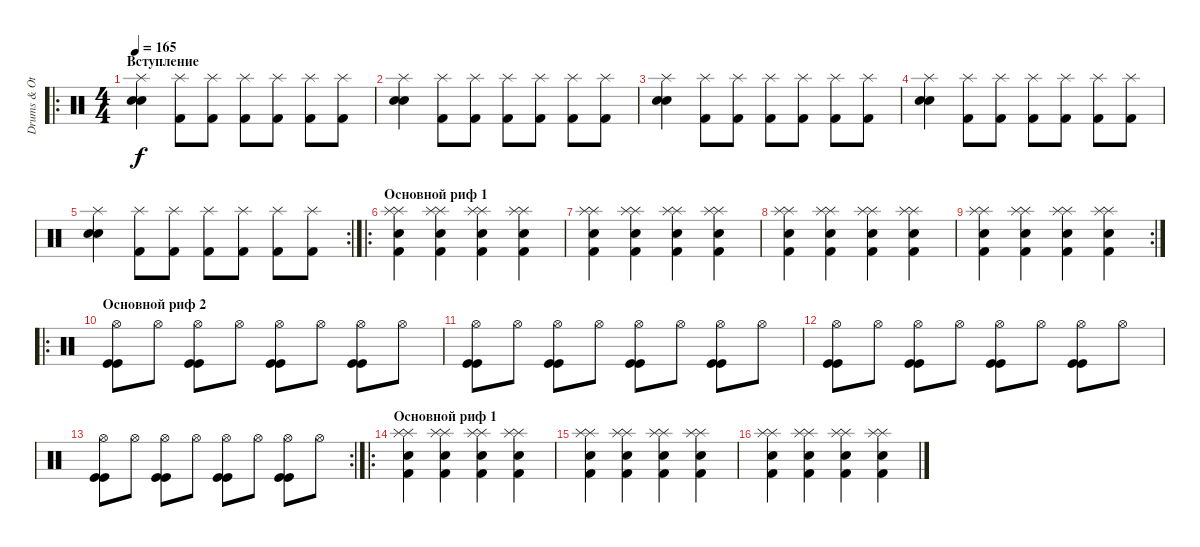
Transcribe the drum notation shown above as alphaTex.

\track ("Drums & Other percussion" "Drums & Ot") {instrument percussion}
\staff {score}
\articulation defaults
\ro
\ts (4 4)
\section ("" "Вступление")
\tempo 165
\clef neutral
\ks c
("Splash (hit)" "Electric Snare (hit)" "Electric Snare (hit)").4{dy f} ("Splash (hit)" "Kick (hit) 2").8 ("Splash (hit)" "Kick (hit) 2").8 ("Splash (hit)" "Kick (hit) 2").8 ("Splash (hit)" "Kick (hit) 2").8 ("Splash (hit)" "Kick (hit) 2").8 ("Splash (hit)" "Kick (hit) 2").8 |
("Splash (hit)" "Electric Snare (hit)" "Electric Snare (hit)").4 ("Splash (hit)" "Kick (hit) 2").8 ("Splash (hit)" "Kick (hit) 2").8 ("Splash (hit)" "Kick (hit) 2").8 ("Splash (hit)" "Kick (hit) 2").8 ("Splash (hit)" "Kick (hit) 2").8 ("Splash (hit)" "Kick (hit) 2").8 |
("Splash (hit)" "Electric Snare (hit)" "Electric Snare (hit)").4 ("Splash (hit)" "Kick (hit) 2").8 ("Splash (hit)" "Kick (hit) 2").8 ("Splash (hit)" "Kick (hit) 2").8 ("Splash (hit)" "Kick (hit) 2").8 ("Splash (hit)" "Kick (hit) 2").8 ("Splash (hit)" "Kick (hit) 2").8 |
("Splash (hit)" "Electric Snare (hit)" "Electric Snare (hit)").4 ("Splash (hit)" "Kick (hit) 2").8 ("Splash (hit)" "Kick (hit) 2").8 ("Splash (hit)" "Kick (hit) 2").8 ("Splash (hit)" "Kick (hit) 2").8 ("Splash (hit)" "Kick (hit) 2").8 ("Splash (hit)" "Kick (hit) 2").8 |
\rc 2
("Splash (hit)" "Electric Snare (hit)" "Electric Snare (hit)").4 ("Splash (hit)" "Kick (hit) 2").8 ("Splash (hit)" "Kick (hit) 2").8 ("Splash (hit)" "Kick (hit) 2").8 ("Splash (hit)" "Kick (hit) 2").8 ("Splash (hit)" "Kick (hit) 2").8 ("Splash (hit)" "Kick (hit) 2").8 |
\ro
\section ("" "Основной риф 1")
("Splash (hit)" "Splash (hit)" "Electric Snare (hit)" "Kick (hit) 2").4 ("Splash (hit)" "Splash (hit)" "Electric Snare (hit)" "Kick (hit) 2").4 ("Splash (hit)" "Splash (hit)" "Electric Snare (hit)" "Kick (hit) 2").4 ("Splash (hit)" "Splash (hit)" "Electric Snare (hit)" "Kick (hit) 2").4 |
("Splash (hit)" "Splash (hit)" "Electric Snare (hit)" "Kick (hit) 2").4 ("Splash (hit)" "Splash (hit)" "Electric Snare (hit)" "Kick (hit) 2").4 ("Splash (hit)" "Splash (hit)" "Electric Snare (hit)" "Kick (hit) 2").4 ("Splash (hit)" "Splash (hit)" "Electric Snare (hit)" "Kick (hit) 2").4 |
("Splash (hit)" "Splash (hit)" "Electric Snare (hit)" "Kick (hit) 2").4 ("Splash (hit)" "Splash (hit)" "Electric Snare (hit)" "Kick (hit) 2").4 ("Splash (hit)" "Splash (hit)" "Electric Snare (hit)" "Kick (hit) 2").4 ("Splash (hit)" "Splash (hit)" "Electric Snare (hit)" "Kick (hit) 2").4 |
\rc 2
("Splash (hit)" "Splash (hit)" "Electric Snare (hit)" "Kick (hit) 2").4 ("Splash (hit)" "Splash (hit)" "Electric Snare (hit)" "Kick (hit) 2").4 ("Splash (hit)" "Splash (hit)" "Electric Snare (hit)" "Kick (hit) 2").4 ("Splash (hit)" "Splash (hit)" "Electric Snare (hit)" "Kick (hit) 2").4 |
\ro
\section ("" "Основной риф 2")
("Hi-Hat (open)" "Kick (hit)" "Kick (hit)").8 "Hi-Hat (open)".8 ("Hi-Hat (open)" "Kick (hit)" "Kick (hit)").8 "Hi-Hat (open)".8 ("Hi-Hat (open)" "Kick (hit)" "Kick (hit)").8 "Hi-Hat (open)".8 ("Hi-Hat (open)" "Kick (hit)" "Kick (hit)").8 "Hi-Hat (open)".8 |
("Hi-Hat (open)" "Kick (hit)" "Kick (hit)").8 "Hi-Hat (open)".8 ("Hi-Hat (open)" "Kick (hit)" "Kick (hit)").8 "Hi-Hat (open)".8 ("Hi-Hat (open)" "Kick (hit)" "Kick (hit)").8 "Hi-Hat (open)".8 ("Hi-Hat (open)" "Kick (hit)" "Kick (hit)").8 "Hi-Hat (open)".8 |
("Hi-Hat (open)" "Kick (hit)" "Kick (hit)").8 "Hi-Hat (open)".8 ("Hi-Hat (open)" "Kick (hit)" "Kick (hit)").8 "Hi-Hat (open)".8 ("Hi-Hat (open)" "Kick (hit)" "Kick (hit)").8 "Hi-Hat (open)".8 ("Hi-Hat (open)" "Kick (hit)" "Kick (hit)").8 "Hi-Hat (open)".8 |
\rc 2
("Hi-Hat (open)" "Kick (hit)" "Kick (hit)").8 "Hi-Hat (open)".8 ("Hi-Hat (open)" "Kick (hit)" "Kick (hit)").8 "Hi-Hat (open)".8 ("Hi-Hat (open)" "Kick (hit)" "Kick (hit)").8 "Hi-Hat (open)".8 ("Hi-Hat (open)" "Kick (hit)" "Kick (hit)").8 "Hi-Hat (open)".8 |
\ro
\section ("" "Основной риф 1")
("Splash (hit)" "Splash (hit)" "Electric Snare (hit)" "Kick (hit) 2").4 ("Splash (hit)" "Splash (hit)" "Electric Snare (hit)" "Kick (hit) 2").4 ("Splash (hit)" "Splash (hit)" "Electric Snare (hit)" "Kick (hit) 2").4 ("Splash (hit)" "Splash (hit)" "Electric Snare (hit)" "Kick (hit) 2").4 |
("Splash (hit)" "Splash (hit)" "Electric Snare (hit)" "Kick (hit) 2").4 ("Splash (hit)" "Splash (hit)" "Electric Snare (hit)" "Kick (hit) 2").4 ("Splash (hit)" "Splash (hit)" "Electric Snare (hit)" "Kick (hit) 2").4 ("Splash (hit)" "Splash (hit)" "Electric Snare (hit)" "Kick (hit) 2").4 |
("Splash (hit)" "Splash (hit)" "Electric Snare (hit)" "Kick (hit) 2").4 ("Splash (hit)" "Splash (hit)" "Electric Snare (hit)" "Kick (hit) 2").4 ("Splash (hit)" "Splash (hit)" "Electric Snare (hit)" "Kick (hit) 2").4 ("Splash (hit)" "Splash (hit)" "Electric Snare (hit)" "Kick (hit) 2").4
